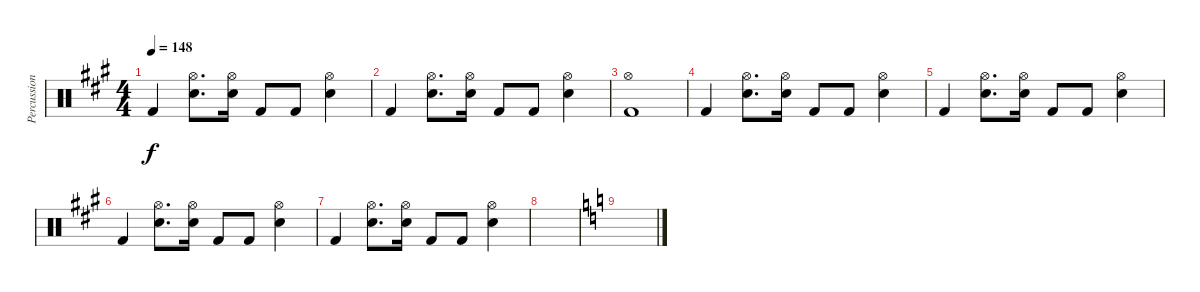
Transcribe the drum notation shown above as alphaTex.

\track ("Percussion" "Percussion") {instrument percussion}
\staff {score}
\articulation defaults
\ts (4 4)
\tempo 148
\clef neutral
\ks a "Kick (hit) 2".4{dy f}
("Hi-Hat (open)" "Electric Snare (hit)").8{d} ("Hi-Hat (open)" "Electric Snare (hit)").16 "Kick (hit) 2".8 "Kick (hit) 2".8 ("Hi-Hat (open)" "Electric Snare (hit)").4 |
"Kick (hit) 2".4 ("Hi-Hat (open)" "Electric Snare (hit)").8{d} ("Hi-Hat (open)" "Electric Snare (hit)").16 "Kick (hit) 2".8 "Kick (hit) 2".8 ("Hi-Hat (open)" "Electric Snare (hit)").4 |
("Hi-Hat (open)" "Kick (hit) 2").1 |
"Kick (hit) 2".4 ("Hi-Hat (open)" "Electric Snare (hit)").8{d} ("Hi-Hat (open)" "Electric Snare (hit)").16 "Kick (hit) 2".8 "Kick (hit) 2".8 ("Hi-Hat (open)" "Electric Snare (hit)").4 |
"Kick (hit) 2".4 ("Hi-Hat (open)" "Electric Snare (hit)").8{d} ("Hi-Hat (open)" "Electric Snare (hit)").16 "Kick (hit) 2".8 "Kick (hit) 2".8 ("Hi-Hat (open)" "Electric Snare (hit)").4 |
"Kick (hit) 2".4 ("Hi-Hat (open)" "Electric Snare (hit)").8{d} ("Hi-Hat (open)" "Electric Snare (hit)").16 "Kick (hit) 2".8 "Kick (hit) 2".8 ("Hi-Hat (open)" "Electric Snare (hit)").4 |
"Kick (hit) 2".4 ("Hi-Hat (open)" "Electric Snare (hit)").8{d} ("Hi-Hat (open)" "Electric Snare (hit)").16 "Kick (hit) 2".8 "Kick (hit) 2".8 ("Hi-Hat (open)" "Electric Snare (hit)").4 |
|
\ks c
